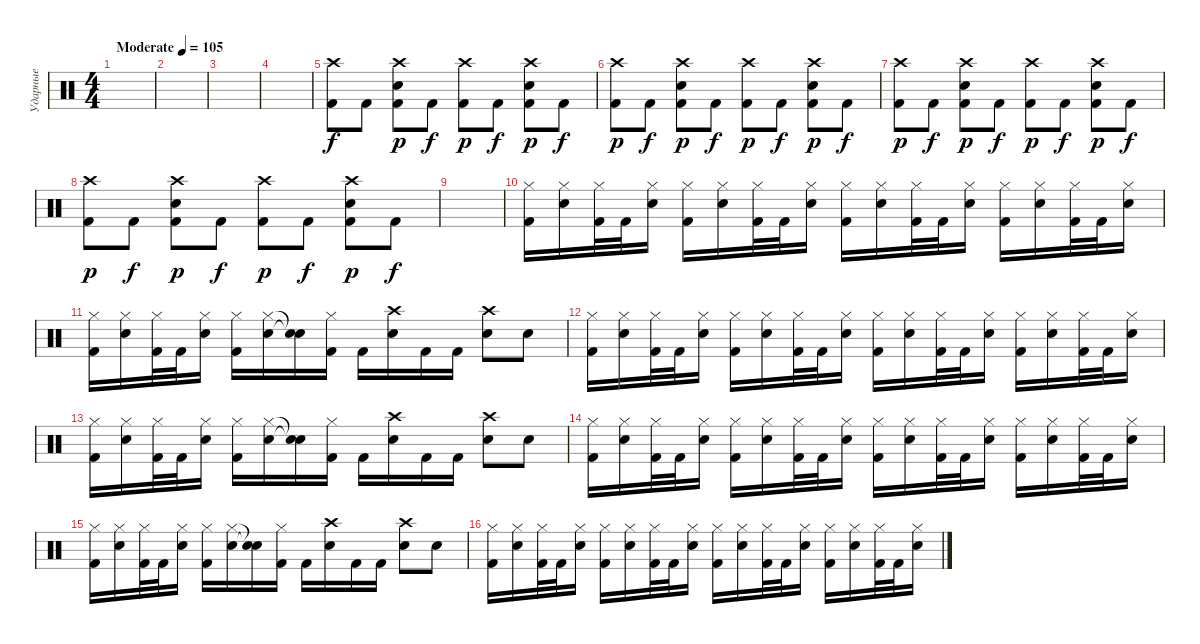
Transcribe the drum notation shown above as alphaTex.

\track ("Ударные" "Ударные") {instrument percussion}
\staff {score}
\articulation defaults
\ts (4 4)
\tempo (105 "Moderate")
\clef neutral
\ks c
|
|
|
|
("Crash high (hit)" "Kick (hit) 2").8 "Kick (hit) 2".8{dy f} ("Crash high (hit)" "Electric Snare (hit)" "Kick (hit) 2").8{dy p} "Kick (hit) 2".8{dy f} ("Crash high (hit)" "Kick (hit) 2").8{dy p} "Kick (hit) 2".8{dy f} ("Crash high (hit)" "Electric Snare (hit)" "Kick (hit) 2").8{dy p} "Kick (hit) 2".8{dy f} |
("Crash high (hit)" "Kick (hit) 2").8{dy p} "Kick (hit) 2".8{dy f} ("Crash high (hit)" "Electric Snare (hit)" "Kick (hit) 2").8{dy p} "Kick (hit) 2".8{dy f} ("Crash high (hit)" "Kick (hit) 2").8{dy p} "Kick (hit) 2".8{dy f} ("Crash high (hit)" "Electric Snare (hit)" "Kick (hit) 2").8{dy p} "Kick (hit) 2".8{dy f} |
("Crash high (hit)" "Kick (hit) 2").8{dy p} "Kick (hit) 2".8{dy f} ("Crash high (hit)" "Electric Snare (hit)" "Kick (hit) 2").8{dy p} "Kick (hit) 2".8{dy f} ("Crash high (hit)" "Kick (hit) 2").8{dy p} "Kick (hit) 2".8{dy f} ("Crash high (hit)" "Electric Snare (hit)" "Kick (hit) 2").8{dy p} "Kick (hit) 2".8{dy f} |
("Crash high (hit)" "Kick (hit) 2").8{dy p} "Kick (hit) 2".8{dy f} ("Crash high (hit)" "Electric Snare (hit)" "Kick (hit) 2").8{dy p} "Kick (hit) 2".8{dy f} ("Crash high (hit)" "Kick (hit) 2").8{dy p} "Kick (hit) 2".8{dy f} ("Crash high (hit)" "Electric Snare (hit)" "Kick (hit) 2").8{dy p} "Kick (hit) 2".8{dy f} |
|
("Hi-Hat (closed)" "Kick (hit) 2").16 ("Hi-Hat (closed)" "Electric Snare (hit)").16 ("Hi-Hat (closed)" "Kick (hit) 2").32 "Kick (hit) 2".32 ("Hi-Hat (closed)" "Electric Snare (hit)").16 ("Hi-Hat (closed)" "Kick (hit) 2").16 ("Hi-Hat (closed)" "Electric Snare (hit)").16 ("Hi-Hat (closed)" "Kick (hit) 2").32 "Kick (hit) 2".32 ("Hi-Hat (closed)" "Electric Snare (hit)").16 ("Hi-Hat (closed)" "Kick (hit) 2").16 ("Hi-Hat (closed)" "Electric Snare (hit)").16 ("Hi-Hat (closed)" "Kick (hit) 2").32 "Kick (hit) 2".32 ("Hi-Hat (closed)" "Electric Snare (hit)").16 ("Hi-Hat (closed)" "Kick (hit) 2").16 ("Hi-Hat (closed)" "Electric Snare (hit)").16 ("Hi-Hat (closed)" "Kick (hit) 2").32 "Kick (hit) 2".32 ("Hi-Hat (closed)" "Electric Snare (hit)").16 |
("Hi-Hat (closed)" "Kick (hit) 2").16 ("Hi-Hat (closed)" "Electric Snare (hit)").16 ("Hi-Hat (closed)" "Kick (hit) 2").32 "Kick (hit) 2".32 ("Hi-Hat (closed)" "Electric Snare (hit)").16 ("Hi-Hat (closed)" "Kick (hit) 2").16 ("Hi-Hat (closed)" "Electric Snare (hit)").16 ("Snare (hit)"{t} "Snare (hit)"{t}).16 ("Hi-Hat (closed)" "Kick (hit) 2").16 "Kick (hit) 2".16 ("Crash high (hit)" "Electric Snare (hit)").16 "Kick (hit) 2".16 "Kick (hit) 2".16 ("Crash high (hit)" "Electric Snare (hit)").8 "Electric Snare (hit)".8 |
("Hi-Hat (closed)" "Kick (hit) 2").16 ("Hi-Hat (closed)" "Electric Snare (hit)").16 ("Hi-Hat (closed)" "Kick (hit) 2").32 "Kick (hit) 2".32 ("Hi-Hat (closed)" "Electric Snare (hit)").16 ("Hi-Hat (closed)" "Kick (hit) 2").16 ("Hi-Hat (closed)" "Electric Snare (hit)").16 ("Hi-Hat (closed)" "Kick (hit) 2").32 "Kick (hit) 2".32 ("Hi-Hat (closed)" "Electric Snare (hit)").16 ("Hi-Hat (closed)" "Kick (hit) 2").16 ("Hi-Hat (closed)" "Electric Snare (hit)").16 ("Hi-Hat (closed)" "Kick (hit) 2").32 "Kick (hit) 2".32 ("Hi-Hat (closed)" "Electric Snare (hit)").16 ("Hi-Hat (closed)" "Kick (hit) 2").16 ("Hi-Hat (closed)" "Electric Snare (hit)").16 ("Hi-Hat (closed)" "Kick (hit) 2").32 "Kick (hit) 2".32 ("Hi-Hat (closed)" "Electric Snare (hit)").16 |
("Hi-Hat (closed)" "Kick (hit) 2").16 ("Hi-Hat (closed)" "Electric Snare (hit)").16 ("Hi-Hat (closed)" "Kick (hit) 2").32 "Kick (hit) 2".32 ("Hi-Hat (closed)" "Electric Snare (hit)").16 ("Hi-Hat (closed)" "Kick (hit) 2").16 ("Hi-Hat (closed)" "Electric Snare (hit)").16 ("Snare (hit)"{t} "Snare (hit)"{t}).16 ("Hi-Hat (closed)" "Kick (hit) 2").16 "Kick (hit) 2".16 ("Crash high (hit)" "Electric Snare (hit)").16 "Kick (hit) 2".16 "Kick (hit) 2".16 ("Crash high (hit)" "Electric Snare (hit)").8 "Electric Snare (hit)".8 |
("Hi-Hat (closed)" "Kick (hit) 2").16 ("Hi-Hat (closed)" "Electric Snare (hit)").16 ("Hi-Hat (closed)" "Kick (hit) 2").32 "Kick (hit) 2".32 ("Hi-Hat (closed)" "Electric Snare (hit)").16 ("Hi-Hat (closed)" "Kick (hit) 2").16 ("Hi-Hat (closed)" "Electric Snare (hit)").16 ("Hi-Hat (closed)" "Kick (hit) 2").32 "Kick (hit) 2".32 ("Hi-Hat (closed)" "Electric Snare (hit)").16 ("Hi-Hat (closed)" "Kick (hit) 2").16 ("Hi-Hat (closed)" "Electric Snare (hit)").16 ("Hi-Hat (closed)" "Kick (hit) 2").32 "Kick (hit) 2".32 ("Hi-Hat (closed)" "Electric Snare (hit)").16 ("Hi-Hat (closed)" "Kick (hit) 2").16 ("Hi-Hat (closed)" "Electric Snare (hit)").16 ("Hi-Hat (closed)" "Kick (hit) 2").32 "Kick (hit) 2".32 ("Hi-Hat (closed)" "Electric Snare (hit)").16 |
("Hi-Hat (closed)" "Kick (hit) 2").16 ("Hi-Hat (closed)" "Electric Snare (hit)").16 ("Hi-Hat (closed)" "Kick (hit) 2").32 "Kick (hit) 2".32 ("Hi-Hat (closed)" "Electric Snare (hit)").16 ("Hi-Hat (closed)" "Kick (hit) 2").16 ("Hi-Hat (closed)" "Electric Snare (hit)").16 ("Snare (hit)"{t} "Snare (hit)"{t}).16 ("Hi-Hat (closed)" "Kick (hit) 2").16 "Kick (hit) 2".16 ("Crash high (hit)" "Electric Snare (hit)").16 "Kick (hit) 2".16 "Kick (hit) 2".16 ("Crash high (hit)" "Electric Snare (hit)").8 "Electric Snare (hit)".8 |
("Hi-Hat (closed)" "Kick (hit) 2").16 ("Hi-Hat (closed)" "Electric Snare (hit)").16 ("Hi-Hat (closed)" "Kick (hit) 2").32 "Kick (hit) 2".32 ("Hi-Hat (closed)" "Electric Snare (hit)").16 ("Hi-Hat (closed)" "Kick (hit) 2").16 ("Hi-Hat (closed)" "Electric Snare (hit)").16 ("Hi-Hat (closed)" "Kick (hit) 2").32 "Kick (hit) 2".32 ("Hi-Hat (closed)" "Electric Snare (hit)").16 ("Hi-Hat (closed)" "Kick (hit) 2").16 ("Hi-Hat (closed)" "Electric Snare (hit)").16 ("Hi-Hat (closed)" "Kick (hit) 2").32 "Kick (hit) 2".32 ("Hi-Hat (closed)" "Electric Snare (hit)").16 ("Hi-Hat (closed)" "Kick (hit) 2").16 ("Hi-Hat (closed)" "Electric Snare (hit)").16 ("Hi-Hat (closed)" "Kick (hit) 2").32 "Kick (hit) 2".32 ("Hi-Hat (closed)" "Electric Snare (hit)").16
